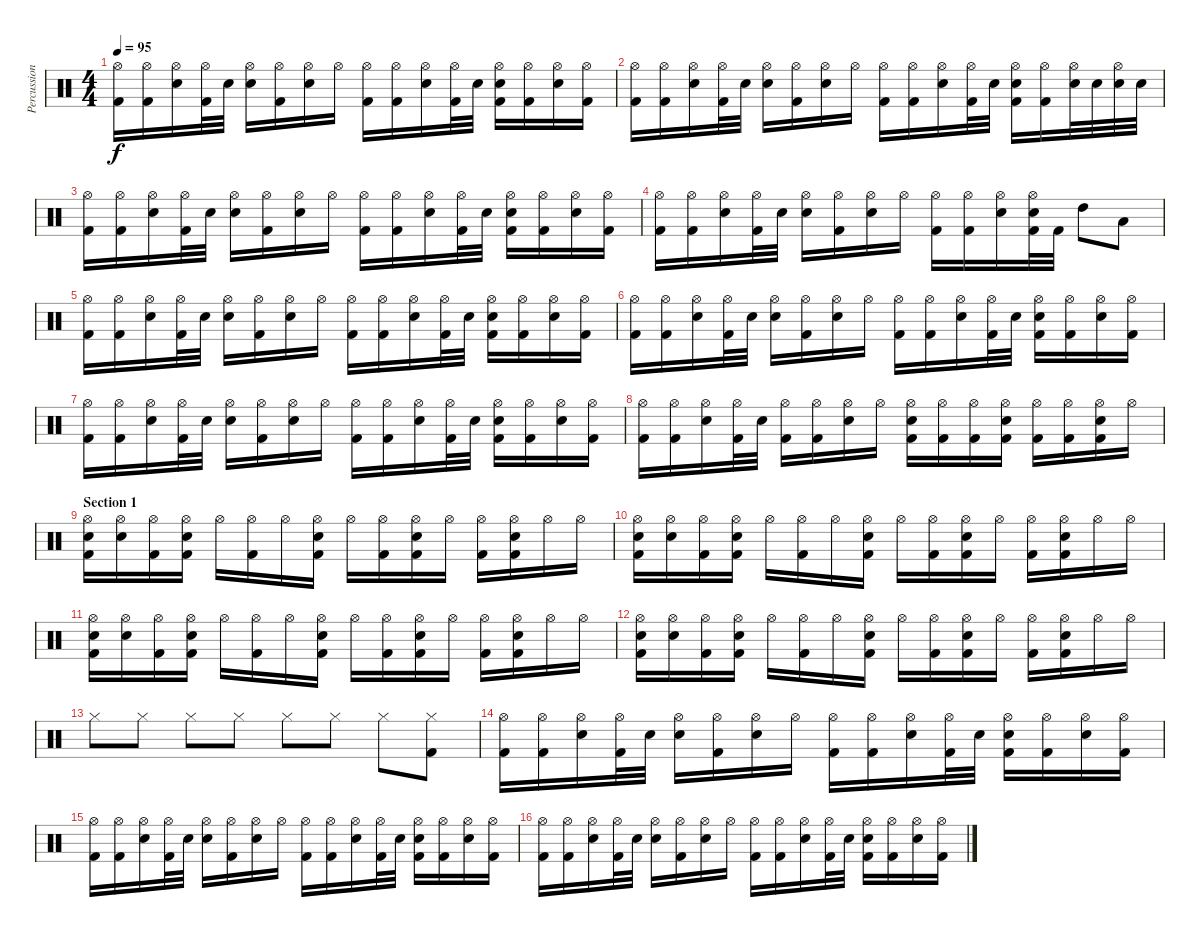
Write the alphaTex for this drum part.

\track ("Percussions" "Percussion") {instrument percussion}
\staff {score}
\articulation defaults
\ts (4 4)
\tempo 95
\clef neutral
\ks c
("Hi-Hat (open)" "Kick (hit) 2").16{dy f} ("Hi-Hat (open)" "Kick (hit) 2").16 ("Electric Snare (hit)" "Hi-Hat (open)").16 ("Hi-Hat (open)" "Kick (hit) 2").32 "Electric Snare (hit)".32 ("Electric Snare (hit)" "Hi-Hat (open)").16 ("Hi-Hat (open)" "Kick (hit) 2").16 ("Electric Snare (hit)" "Hi-Hat (open)").16 "Hi-Hat (open)".16 ("Hi-Hat (open)" "Kick (hit) 2").16 ("Hi-Hat (open)" "Kick (hit) 2").16 ("Electric Snare (hit)" "Hi-Hat (open)").16 ("Hi-Hat (open)" "Kick (hit) 2").32 "Electric Snare (hit)".32 ("Electric Snare (hit)" "Hi-Hat (open)" "Kick (hit) 2").16 ("Hi-Hat (open)" "Kick (hit) 2").16 ("Electric Snare (hit)" "Hi-Hat (open)").16 ("Hi-Hat (open)" "Kick (hit) 2").16 |
("Hi-Hat (open)" "Kick (hit) 2").16 ("Hi-Hat (open)" "Kick (hit) 2").16 ("Electric Snare (hit)" "Hi-Hat (open)").16 ("Hi-Hat (open)" "Kick (hit) 2").32 "Electric Snare (hit)".32 ("Electric Snare (hit)" "Hi-Hat (open)").16 ("Hi-Hat (open)" "Kick (hit) 2").16 ("Electric Snare (hit)" "Hi-Hat (open)").16 "Hi-Hat (open)".16 ("Hi-Hat (open)" "Kick (hit) 2").16 ("Hi-Hat (open)" "Kick (hit) 2").16 ("Electric Snare (hit)" "Hi-Hat (open)").16 ("Hi-Hat (open)" "Kick (hit) 2").32 "Electric Snare (hit)".32 ("Electric Snare (hit)" "Hi-Hat (open)" "Kick (hit) 2").16 ("Hi-Hat (open)" "Kick (hit) 2").16 ("Electric Snare (hit)" "Hi-Hat (open)").32 "Electric Snare (hit)".32 ("Electric Snare (hit)" "Hi-Hat (open)").32 "Electric Snare (hit)".32 |
("Hi-Hat (open)" "Kick (hit) 2").16 ("Hi-Hat (open)" "Kick (hit) 2").16 ("Electric Snare (hit)" "Hi-Hat (open)").16 ("Hi-Hat (open)" "Kick (hit) 2").32 "Electric Snare (hit)".32 ("Electric Snare (hit)" "Hi-Hat (open)").16 ("Hi-Hat (open)" "Kick (hit) 2").16 ("Electric Snare (hit)" "Hi-Hat (open)").16 "Hi-Hat (open)".16 ("Hi-Hat (open)" "Kick (hit) 2").16 ("Hi-Hat (open)" "Kick (hit) 2").16 ("Electric Snare (hit)" "Hi-Hat (open)").16 ("Hi-Hat (open)" "Kick (hit) 2").32 "Electric Snare (hit)".32 ("Electric Snare (hit)" "Hi-Hat (open)" "Kick (hit) 2").16 ("Hi-Hat (open)" "Kick (hit) 2").16 ("Electric Snare (hit)" "Hi-Hat (open)").16 ("Hi-Hat (open)" "Kick (hit) 2").16 |
("Hi-Hat (open)" "Kick (hit) 2").16 ("Hi-Hat (open)" "Kick (hit) 2").16 ("Electric Snare (hit)" "Hi-Hat (open)").16 ("Hi-Hat (open)" "Kick (hit) 2").32 "Electric Snare (hit)".32 ("Electric Snare (hit)" "Hi-Hat (open)").16 ("Hi-Hat (open)" "Kick (hit) 2").16 ("Electric Snare (hit)" "Hi-Hat (open)").16 "Hi-Hat (open)".16 ("Hi-Hat (open)" "Kick (hit) 2").16 ("Hi-Hat (open)" "Kick (hit) 2").16 ("Electric Snare (hit)" "Hi-Hat (open)").16 ("Electric Snare (hit)" "Hi-Hat (open)" "Kick (hit) 2").32 "Kick (hit) 2".32 "High Tom (hit)".8 "Low Tom (hit)".8 |
("Hi-Hat (open)" "Kick (hit) 2").16 ("Hi-Hat (open)" "Kick (hit) 2").16 ("Electric Snare (hit)" "Hi-Hat (open)").16 ("Hi-Hat (open)" "Kick (hit) 2").32 "Electric Snare (hit)".32 ("Electric Snare (hit)" "Hi-Hat (open)").16 ("Hi-Hat (open)" "Kick (hit) 2").16 ("Electric Snare (hit)" "Hi-Hat (open)").16 "Hi-Hat (open)".16 ("Hi-Hat (open)" "Kick (hit) 2").16 ("Hi-Hat (open)" "Kick (hit) 2").16 ("Electric Snare (hit)" "Hi-Hat (open)").16 ("Hi-Hat (open)" "Kick (hit) 2").32 "Electric Snare (hit)".32 ("Electric Snare (hit)" "Hi-Hat (open)" "Kick (hit) 2").16 ("Hi-Hat (open)" "Kick (hit) 2").16 ("Electric Snare (hit)" "Hi-Hat (open)").16 ("Hi-Hat (open)" "Kick (hit) 2").16 |
("Hi-Hat (open)" "Kick (hit) 2").16 ("Hi-Hat (open)" "Kick (hit) 2").16 ("Electric Snare (hit)" "Hi-Hat (open)").16 ("Hi-Hat (open)" "Kick (hit) 2").32 "Electric Snare (hit)".32 ("Electric Snare (hit)" "Hi-Hat (open)").16 ("Hi-Hat (open)" "Kick (hit) 2").16 ("Electric Snare (hit)" "Hi-Hat (open)").16 "Hi-Hat (open)".16 ("Hi-Hat (open)" "Kick (hit) 2").16 ("Hi-Hat (open)" "Kick (hit) 2").16 ("Electric Snare (hit)" "Hi-Hat (open)").16 ("Hi-Hat (open)" "Kick (hit) 2").32 "Electric Snare (hit)".32 ("Electric Snare (hit)" "Hi-Hat (open)" "Kick (hit) 2").16 ("Hi-Hat (open)" "Kick (hit) 2").16 ("Electric Snare (hit)" "Hi-Hat (open)").16 ("Hi-Hat (open)" "Kick (hit) 2").16 |
("Hi-Hat (open)" "Kick (hit) 2").16 ("Hi-Hat (open)" "Kick (hit) 2").16 ("Electric Snare (hit)" "Hi-Hat (open)").16 ("Hi-Hat (open)" "Kick (hit) 2").32 "Electric Snare (hit)".32 ("Electric Snare (hit)" "Hi-Hat (open)").16 ("Hi-Hat (open)" "Kick (hit) 2").16 ("Electric Snare (hit)" "Hi-Hat (open)").16 "Hi-Hat (open)".16 ("Hi-Hat (open)" "Kick (hit) 2").16 ("Hi-Hat (open)" "Kick (hit) 2").16 ("Electric Snare (hit)" "Hi-Hat (open)").16 ("Hi-Hat (open)" "Kick (hit) 2").32 "Electric Snare (hit)".32 ("Electric Snare (hit)" "Hi-Hat (open)" "Kick (hit) 2").16 ("Hi-Hat (open)" "Kick (hit) 2").16 ("Electric Snare (hit)" "Hi-Hat (open)").16 ("Hi-Hat (open)" "Kick (hit) 2").16 |
("Hi-Hat (open)" "Kick (hit) 2").16 ("Hi-Hat (open)" "Kick (hit) 2").16 ("Electric Snare (hit)" "Hi-Hat (open)").16 ("Hi-Hat (open)" "Kick (hit) 2").32 "Electric Snare (hit)".32 ("Hi-Hat (open)" "Kick (hit) 2").16 ("Hi-Hat (open)" "Kick (hit) 2").16 ("Electric Snare (hit)" "Hi-Hat (open)").16 "Hi-Hat (open)".16 ("Electric Snare (hit)" "Hi-Hat (open)" "Kick (hit) 2").16 ("Hi-Hat (open)" "Kick (hit) 2").16 ("Hi-Hat (open)" "Kick (hit) 2").16 ("Electric Snare (hit)" "Hi-Hat (open)" "Kick (hit) 2").16 ("Hi-Hat (open)" "Kick (hit) 2").16 ("Hi-Hat (open)" "Kick (hit) 2").16 ("Electric Snare (hit)" "Hi-Hat (open)" "Kick (hit) 2").16 "Hi-Hat (open)".16 |
\section ("" "Section 1")
("Electric Snare (hit)" "Hi-Hat (open)" "Kick (hit) 2").16 ("Electric Snare (hit)" "Hi-Hat (open)").16 ("Hi-Hat (open)" "Kick (hit) 2").16 ("Electric Snare (hit)" "Hi-Hat (open)" "Kick (hit) 2").16 "Hi-Hat (open)".16 ("Hi-Hat (open)" "Kick (hit) 2").16 "Hi-Hat (open)".16 ("Electric Snare (hit)" "Hi-Hat (open)" "Kick (hit) 2").16 "Hi-Hat (open)".16 ("Hi-Hat (open)" "Kick (hit) 2").16 ("Electric Snare (hit)" "Hi-Hat (open)" "Kick (hit) 2").16 "Hi-Hat (open)".16 ("Hi-Hat (open)" "Kick (hit) 2").16 ("Electric Snare (hit)" "Hi-Hat (open)" "Kick (hit) 2").16 "Hi-Hat (open)".16 "Hi-Hat (open)".16 |
("Electric Snare (hit)" "Hi-Hat (open)" "Kick (hit) 2").16 ("Electric Snare (hit)" "Hi-Hat (open)").16 ("Hi-Hat (open)" "Kick (hit) 2").16 ("Electric Snare (hit)" "Hi-Hat (open)" "Kick (hit) 2").16 "Hi-Hat (open)".16 ("Hi-Hat (open)" "Kick (hit) 2").16 "Hi-Hat (open)".16 ("Electric Snare (hit)" "Hi-Hat (open)" "Kick (hit) 2").16 "Hi-Hat (open)".16 ("Hi-Hat (open)" "Kick (hit) 2").16 ("Electric Snare (hit)" "Hi-Hat (open)" "Kick (hit) 2").16 "Hi-Hat (open)".16 ("Hi-Hat (open)" "Kick (hit) 2").16 ("Electric Snare (hit)" "Hi-Hat (open)" "Kick (hit) 2").16 "Hi-Hat (open)".16 "Hi-Hat (open)".16 |
("Electric Snare (hit)" "Hi-Hat (open)" "Kick (hit) 2").16 ("Electric Snare (hit)" "Hi-Hat (open)").16 ("Hi-Hat (open)" "Kick (hit) 2").16 ("Electric Snare (hit)" "Hi-Hat (open)" "Kick (hit) 2").16 "Hi-Hat (open)".16 ("Hi-Hat (open)" "Kick (hit) 2").16 "Hi-Hat (open)".16 ("Electric Snare (hit)" "Hi-Hat (open)" "Kick (hit) 2").16 "Hi-Hat (open)".16 ("Hi-Hat (open)" "Kick (hit) 2").16 ("Electric Snare (hit)" "Hi-Hat (open)" "Kick (hit) 2").16 "Hi-Hat (open)".16 ("Hi-Hat (open)" "Kick (hit) 2").16 ("Electric Snare (hit)" "Hi-Hat (open)" "Kick (hit) 2").16 "Hi-Hat (open)".16 "Hi-Hat (open)".16 |
("Electric Snare (hit)" "Hi-Hat (open)" "Kick (hit) 2").16 ("Electric Snare (hit)" "Hi-Hat (open)").16 ("Hi-Hat (open)" "Kick (hit) 2").16 ("Electric Snare (hit)" "Hi-Hat (open)" "Kick (hit) 2").16 "Hi-Hat (open)".16 ("Hi-Hat (open)" "Kick (hit) 2").16 "Hi-Hat (open)".16 ("Electric Snare (hit)" "Hi-Hat (open)" "Kick (hit) 2").16 "Hi-Hat (open)".16 ("Hi-Hat (open)" "Kick (hit) 2").16 ("Electric Snare (hit)" "Hi-Hat (open)" "Kick (hit) 2").16 "Hi-Hat (open)".16 ("Hi-Hat (open)" "Kick (hit) 2").16 ("Electric Snare (hit)" "Hi-Hat (open)" "Kick (hit) 2").16 "Hi-Hat (open)".16 "Hi-Hat (open)".16 |
"Hi-Hat (closed)".8 "Hi-Hat (closed)".8 "Hi-Hat (closed)".8 "Hi-Hat (closed)".8 "Hi-Hat (closed)".8 "Hi-Hat (closed)".8 "Hi-Hat (closed)".8 ("Hi-Hat (closed)" "Kick (hit) 2").8 |
("Hi-Hat (open)" "Kick (hit) 2").16 ("Hi-Hat (open)" "Kick (hit) 2").16 ("Electric Snare (hit)" "Hi-Hat (open)").16 ("Hi-Hat (open)" "Kick (hit) 2").32 "Electric Snare (hit)".32 ("Electric Snare (hit)" "Hi-Hat (open)").16 ("Hi-Hat (open)" "Kick (hit) 2").16 ("Electric Snare (hit)" "Hi-Hat (open)").16 "Hi-Hat (open)".16 ("Hi-Hat (open)" "Kick (hit) 2").16 ("Hi-Hat (open)" "Kick (hit) 2").16 ("Electric Snare (hit)" "Hi-Hat (open)").16 ("Hi-Hat (open)" "Kick (hit) 2").32 "Electric Snare (hit)".32 ("Electric Snare (hit)" "Hi-Hat (open)" "Kick (hit) 2").16 ("Hi-Hat (open)" "Kick (hit) 2").16 ("Electric Snare (hit)" "Hi-Hat (open)").16 ("Hi-Hat (open)" "Kick (hit) 2").16 |
("Hi-Hat (open)" "Kick (hit) 2").16 ("Hi-Hat (open)" "Kick (hit) 2").16 ("Electric Snare (hit)" "Hi-Hat (open)").16 ("Hi-Hat (open)" "Kick (hit) 2").32 "Electric Snare (hit)".32 ("Electric Snare (hit)" "Hi-Hat (open)").16 ("Hi-Hat (open)" "Kick (hit) 2").16 ("Electric Snare (hit)" "Hi-Hat (open)").16 "Hi-Hat (open)".16 ("Hi-Hat (open)" "Kick (hit) 2").16 ("Hi-Hat (open)" "Kick (hit) 2").16 ("Electric Snare (hit)" "Hi-Hat (open)").16 ("Hi-Hat (open)" "Kick (hit) 2").32 "Electric Snare (hit)".32 ("Electric Snare (hit)" "Hi-Hat (open)" "Kick (hit) 2").16 ("Hi-Hat (open)" "Kick (hit) 2").16 ("Electric Snare (hit)" "Hi-Hat (open)").16 ("Hi-Hat (open)" "Kick (hit) 2").16 |
("Hi-Hat (open)" "Kick (hit) 2").16 ("Hi-Hat (open)" "Kick (hit) 2").16 ("Electric Snare (hit)" "Hi-Hat (open)").16 ("Hi-Hat (open)" "Kick (hit) 2").32 "Electric Snare (hit)".32 ("Electric Snare (hit)" "Hi-Hat (open)").16 ("Hi-Hat (open)" "Kick (hit) 2").16 ("Electric Snare (hit)" "Hi-Hat (open)").16 "Hi-Hat (open)".16 ("Hi-Hat (open)" "Kick (hit) 2").16 ("Hi-Hat (open)" "Kick (hit) 2").16 ("Electric Snare (hit)" "Hi-Hat (open)").16 ("Hi-Hat (open)" "Kick (hit) 2").32 "Electric Snare (hit)".32 ("Electric Snare (hit)" "Hi-Hat (open)" "Kick (hit) 2").16 ("Hi-Hat (open)" "Kick (hit) 2").16 ("Electric Snare (hit)" "Hi-Hat (open)").16 ("Hi-Hat (open)" "Kick (hit) 2").16
